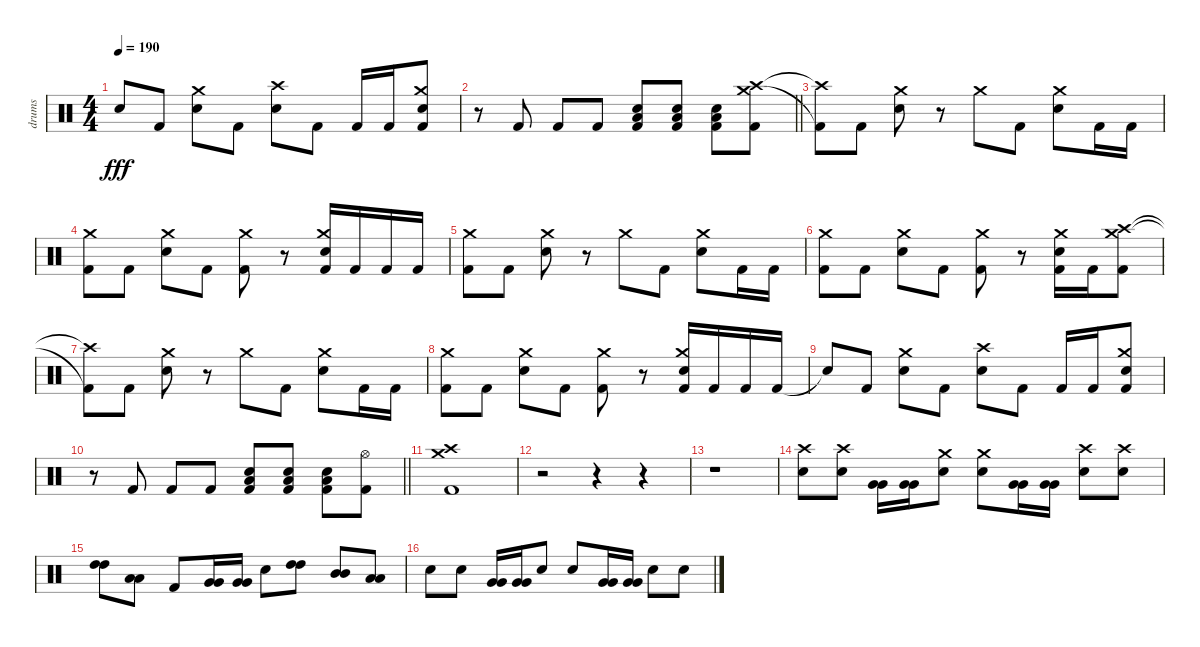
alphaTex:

\track ("drums" "drums") {instrument percussion}
\staff {score}
\articulation defaults
\ts (4 4)
\tempo 190
\clef neutral
\ks c "Snare (hit)"{t}.8{dy fff} "Kick (hit) 2".8
("Crash medium (hit)" "Electric Snare (hit)").8 "Kick (hit) 2".8 ("Crash high (hit)" "Electric Snare (hit)").8 "Kick (hit) 2".8 "Kick (hit) 2".16 "Kick (hit) 2".16 ("Crash medium (hit)" "Electric Snare (hit)" "Kick (hit) 2").8 |
\barLineRight lightlight
r.8 "Kick (hit) 2".8 "Kick (hit) 2".8 "Kick (hit) 2".8 ("Low Floor Tom (hit)" "Electric Snare (hit)" "Kick (hit) 2").8 ("Low Floor Tom (hit)" "Electric Snare (hit)" "Kick (hit) 2").8 ("Low Floor Tom (hit)" "Electric Snare (hit)" "Kick (hit) 2").8 ("Crash high (hit)" "Crash medium (hit)" "Kick (hit) 2").8 |
\section ("" "")
("Crash high (hit)"{t} "Kick (hit) 2"{t}).8 "Kick (hit) 2".8 ("Crash medium (hit)" "Electric Snare (hit)").8 r.8 "Crash medium (hit)".8 "Kick (hit) 2".8 ("Crash medium (hit)" "Electric Snare (hit)").8 "Kick (hit) 2".16 "Kick (hit) 2".16 |
("Crash medium (hit)" "Kick (hit) 2").8 "Kick (hit) 2".8 ("Crash medium (hit)" "Electric Snare (hit)").8 "Kick (hit) 2".8 ("Crash medium (hit)" "Kick (hit) 2").8 r.8 ("Crash medium (hit)" "Electric Snare (hit)" "Kick (hit) 2").16 "Kick (hit) 2".16 "Kick (hit) 2".16 "Kick (hit) 2".16 |
("Crash medium (hit)" "Kick (hit) 2").8 "Kick (hit) 2".8 ("Crash medium (hit)" "Electric Snare (hit)").8 r.8 "Crash medium (hit)".8 "Kick (hit) 2".8 ("Crash medium (hit)" "Electric Snare (hit)").8 "Kick (hit) 2".16 "Kick (hit) 2".16 |
("Crash medium (hit)" "Kick (hit) 2").8 "Kick (hit) 2".8 ("Crash medium (hit)" "Electric Snare (hit)").8 "Kick (hit) 2".8 ("Crash medium (hit)" "Kick (hit) 2").8 r.8 ("Crash medium (hit)" "Electric Snare (hit)" "Kick (hit) 2").16 "Kick (hit) 2".16 ("Crash high (hit)" "Crash medium (hit)" "Kick (hit) 2").8 |
("Crash high (hit)"{t} "Kick (hit) 2"{t}).8 "Kick (hit) 2".8 ("Crash medium (hit)" "Electric Snare (hit)").8 r.8 "Crash medium (hit)".8 "Kick (hit) 2".8 ("Crash medium (hit)" "Electric Snare (hit)").8 "Kick (hit) 2".16 "Kick (hit) 2".16 |
("Crash medium (hit)" "Kick (hit) 2").8 "Kick (hit) 2".8 ("Crash medium (hit)" "Electric Snare (hit)").8 "Kick (hit) 2".8 ("Crash medium (hit)" "Kick (hit) 2").8 r.8 ("Crash medium (hit)" "Electric Snare (hit)" "Kick (hit) 2").16 "Kick (hit) 2".16 "Kick (hit) 2".16 "Kick (hit) 2".16 |
"Snare (hit)"{t}.8 "Kick (hit) 2".8 ("Crash medium (hit)" "Electric Snare (hit)").8 "Kick (hit) 2".8 ("Crash high (hit)" "Electric Snare (hit)").8 "Kick (hit) 2".8 "Kick (hit) 2".16 "Kick (hit) 2".16 ("Crash medium (hit)" "Electric Snare (hit)" "Kick (hit) 2").8 |
\barLineRight lightlight
r.8 "Kick (hit) 2".8 "Kick (hit) 2".8 "Kick (hit) 2".8 ("Low Floor Tom (hit)" "Electric Snare (hit)" "Kick (hit) 2").8 ("Low Floor Tom (hit)" "Electric Snare (hit)" "Kick (hit) 2").8 ("Low Floor Tom (hit)" "Electric Snare (hit)" "Kick (hit) 2").8 ("Hi-Hat (open)" "Kick (hit) 2").8 |
\section ("" "")
("Crash high (hit)" "Crash medium (hit)" "Kick (hit) 2").1 |
r.2 r.4 r.4 |
r.1 |
("Crash high (hit)" "Electric Snare (hit)").8 ("Crash high (hit)" "Electric Snare (hit)").8 ("Very Low Tom (hit)" "Very Low Tom (hit)").16 ("Very Low Tom (hit)" "Very Low Tom (hit)").16 ("Crash medium (hit)" "Electric Snare (hit)").8 ("Crash medium (hit)" "Electric Snare (hit)").8 ("Very Low Tom (hit)" "Very Low Tom (hit)").16 ("Very Low Tom (hit)" "Very Low Tom (hit)").16 ("Crash high (hit)" "Electric Snare (hit)").8 ("Crash high (hit)" "Electric Snare (hit)").8 |
("High Tom (hit)" "High Tom (hit)").8 ("Low Tom (hit)" "Low Tom (hit)").8 "Kick (hit) 2".8 ("Very Low Tom (hit)" "Very Low Tom (hit)").16 ("Very Low Tom (hit)" "Very Low Tom (hit)").16 "Electric Snare (hit)".8 ("High Tom (hit)" "High Tom (hit)").8 ("Mid Tom (hit)" "Mid Tom (hit)").8 ("Low Tom (hit)" "Low Tom (hit)").8 |
"Electric Snare (hit)".8 "Electric Snare (hit)".8 ("Very Low Tom (hit)" "Very Low Tom (hit)").16 ("Very Low Tom (hit)" "Very Low Tom (hit)").16 "Electric Snare (hit)".8 "Electric Snare (hit)".8 ("Very Low Tom (hit)" "Very Low Tom (hit)").16 ("Very Low Tom (hit)" "Very Low Tom (hit)").16 "Electric Snare (hit)".8 "Electric Snare (hit)".8
